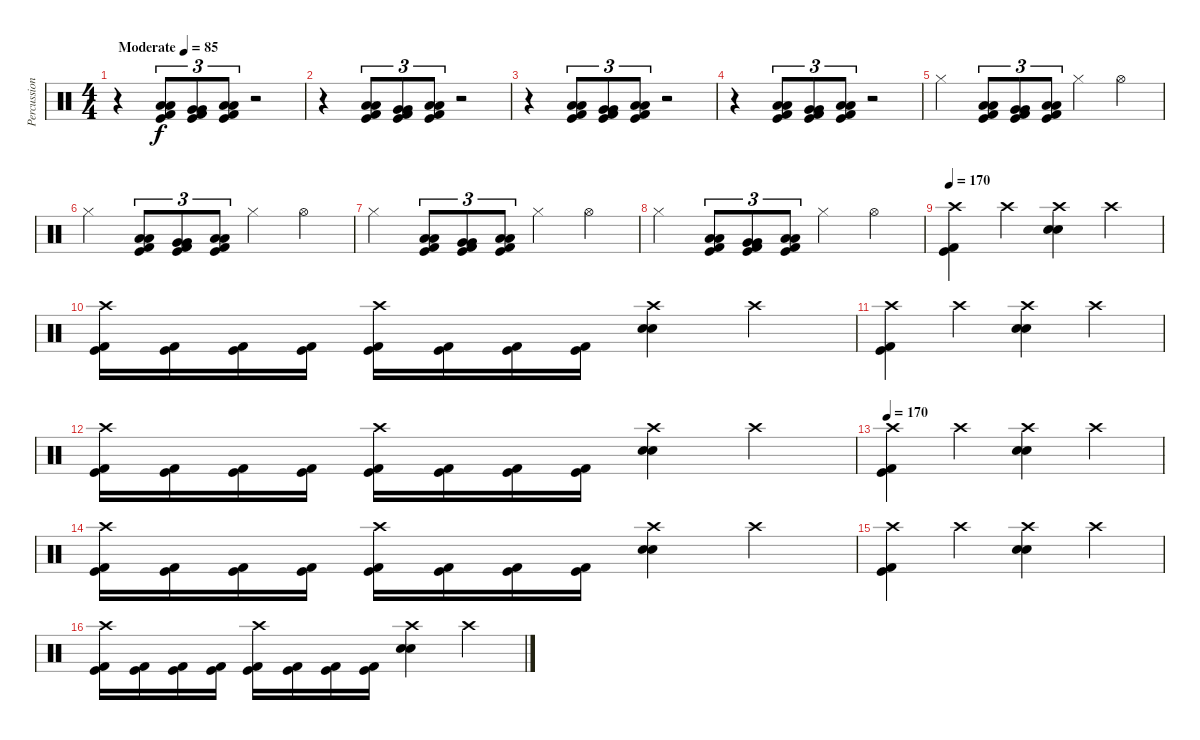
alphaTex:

\track ("Percussion" "Percussion") {instrument percussion}
\staff {score}
\articulation defaults
\ts (4 4)
\tempo (85 "Moderate")
\clef neutral
\ks c
r.4{dy f} ("Kick (hit)" "Low Tom (hit)" "Kick (hit) 2" "Low Tom (hit)").8{tu (3 2)} ("Kick (hit)" "Very Low Tom (hit)" "Kick (hit) 2" "Very Low Tom (hit)").8{tu (3 2)} ("Kick (hit)" "Low Floor Tom (hit)" "Kick (hit) 2" "Low Floor Tom (hit)").8{tu (3 2)} r.2 |
r.4 ("Kick (hit)" "Low Tom (hit)" "Kick (hit) 2" "Low Tom (hit)").8{tu (3 2)} ("Kick (hit)" "Very Low Tom (hit)" "Kick (hit) 2" "Very Low Tom (hit)").8{tu (3 2)} ("Kick (hit)" "Low Floor Tom (hit)" "Kick (hit) 2" "Low Floor Tom (hit)").8{tu (3 2)} r.2 |
r.4 ("Kick (hit)" "Low Tom (hit)" "Kick (hit) 2" "Low Tom (hit)").8{tu (3 2)} ("Kick (hit)" "Very Low Tom (hit)" "Kick (hit) 2" "Very Low Tom (hit)").8{tu (3 2)} ("Kick (hit)" "Low Floor Tom (hit)" "Kick (hit) 2" "Low Floor Tom (hit)").8{tu (3 2)} r.2 |
r.4 ("Kick (hit)" "Low Tom (hit)" "Kick (hit) 2" "Low Tom (hit)").8{tu (3 2)} ("Kick (hit)" "Very Low Tom (hit)" "Kick (hit) 2" "Very Low Tom (hit)").8{tu (3 2)} ("Kick (hit)" "Low Floor Tom (hit)" "Kick (hit) 2" "Low Floor Tom (hit)").8{tu (3 2)} r.2 |
"Hi-Hat (closed)".4 ("Kick (hit)" "Low Tom (hit)" "Kick (hit) 2" "Low Tom (hit)").8{tu (3 2)} ("Kick (hit)" "Very Low Tom (hit)" "Kick (hit) 2" "Very Low Tom (hit)").8{tu (3 2)} ("Kick (hit)" "Low Floor Tom (hit)" "Kick (hit) 2" "Low Floor Tom (hit)").8{tu (3 2)} "Hi-Hat (closed)".4 "Hi-Hat (open)".4 |
"Hi-Hat (closed)".4 ("Kick (hit)" "Low Tom (hit)" "Kick (hit) 2" "Low Tom (hit)").8{tu (3 2)} ("Kick (hit)" "Very Low Tom (hit)" "Kick (hit) 2" "Very Low Tom (hit)").8{tu (3 2)} ("Kick (hit)" "Low Floor Tom (hit)" "Kick (hit) 2" "Low Floor Tom (hit)").8{tu (3 2)} "Hi-Hat (closed)".4 "Hi-Hat (open)".4 |
"Hi-Hat (closed)".4 ("Kick (hit)" "Low Tom (hit)" "Kick (hit) 2" "Low Tom (hit)").8{tu (3 2)} ("Kick (hit)" "Very Low Tom (hit)" "Kick (hit) 2" "Very Low Tom (hit)").8{tu (3 2)} ("Kick (hit)" "Low Floor Tom (hit)" "Kick (hit) 2" "Low Floor Tom (hit)").8{tu (3 2)} "Hi-Hat (closed)".4 "Hi-Hat (open)".4 |
"Hi-Hat (closed)".4 ("Kick (hit)" "Low Tom (hit)" "Kick (hit) 2" "Low Tom (hit)").8{tu (3 2)} ("Kick (hit)" "Very Low Tom (hit)" "Kick (hit) 2" "Very Low Tom (hit)").8{tu (3 2)} ("Kick (hit)" "Low Floor Tom (hit)" "Kick (hit) 2" "Low Floor Tom (hit)").8{tu (3 2)} "Hi-Hat (closed)".4 "Hi-Hat (open)".4 |
\tempo 170
("Crash high (hit)" "Kick (hit) 2" "Kick (hit)").4 "Crash high (hit)".4 ("Crash high (hit)" "Electric Snare (hit)" "Electric Snare (hit)").4 "Crash high (hit)".4 |
("Crash high (hit)" "Kick (hit) 2" "Kick (hit)").16 ("Kick (hit) 2" "Kick (hit)").16 ("Kick (hit) 2" "Kick (hit)").16 ("Kick (hit) 2" "Kick (hit)").16 ("Crash high (hit)" "Kick (hit) 2" "Kick (hit)").16 ("Kick (hit) 2" "Kick (hit)").16 ("Kick (hit) 2" "Kick (hit)").16 ("Kick (hit) 2" "Kick (hit)").16 ("Crash high (hit)" "Electric Snare (hit)" "Electric Snare (hit)").4 "Crash high (hit)".4 |
("Crash high (hit)" "Kick (hit) 2" "Kick (hit)").4 "Crash high (hit)".4 ("Crash high (hit)" "Electric Snare (hit)" "Electric Snare (hit)").4 "Crash high (hit)".4 |
("Crash high (hit)" "Kick (hit) 2" "Kick (hit)").16 ("Kick (hit) 2" "Kick (hit)").16 ("Kick (hit) 2" "Kick (hit)").16 ("Kick (hit) 2" "Kick (hit)").16 ("Crash high (hit)" "Kick (hit) 2" "Kick (hit)").16 ("Kick (hit) 2" "Kick (hit)").16 ("Kick (hit) 2" "Kick (hit)").16 ("Kick (hit) 2" "Kick (hit)").16 ("Crash high (hit)" "Electric Snare (hit)" "Electric Snare (hit)").4 "Crash high (hit)".4 |
\tempo 170
("Crash high (hit)" "Kick (hit) 2" "Kick (hit)").4 "Crash high (hit)".4 ("Crash high (hit)" "Electric Snare (hit)" "Electric Snare (hit)").4 "Crash high (hit)".4 |
("Crash high (hit)" "Kick (hit) 2" "Kick (hit)").16 ("Kick (hit) 2" "Kick (hit)").16 ("Kick (hit) 2" "Kick (hit)").16 ("Kick (hit) 2" "Kick (hit)").16 ("Crash high (hit)" "Kick (hit) 2" "Kick (hit)").16 ("Kick (hit) 2" "Kick (hit)").16 ("Kick (hit) 2" "Kick (hit)").16 ("Kick (hit) 2" "Kick (hit)").16 ("Crash high (hit)" "Electric Snare (hit)" "Electric Snare (hit)").4 "Crash high (hit)".4 |
("Crash high (hit)" "Kick (hit) 2" "Kick (hit)").4 "Crash high (hit)".4 ("Crash high (hit)" "Electric Snare (hit)" "Electric Snare (hit)").4 "Crash high (hit)".4 |
("Crash high (hit)" "Kick (hit) 2" "Kick (hit)").16 ("Kick (hit) 2" "Kick (hit)").16 ("Kick (hit) 2" "Kick (hit)").16 ("Kick (hit) 2" "Kick (hit)").16 ("Crash high (hit)" "Kick (hit) 2" "Kick (hit)").16 ("Kick (hit) 2" "Kick (hit)").16 ("Kick (hit) 2" "Kick (hit)").16 ("Kick (hit) 2" "Kick (hit)").16 ("Crash high (hit)" "Electric Snare (hit)" "Electric Snare (hit)").4 "Crash high (hit)".4
